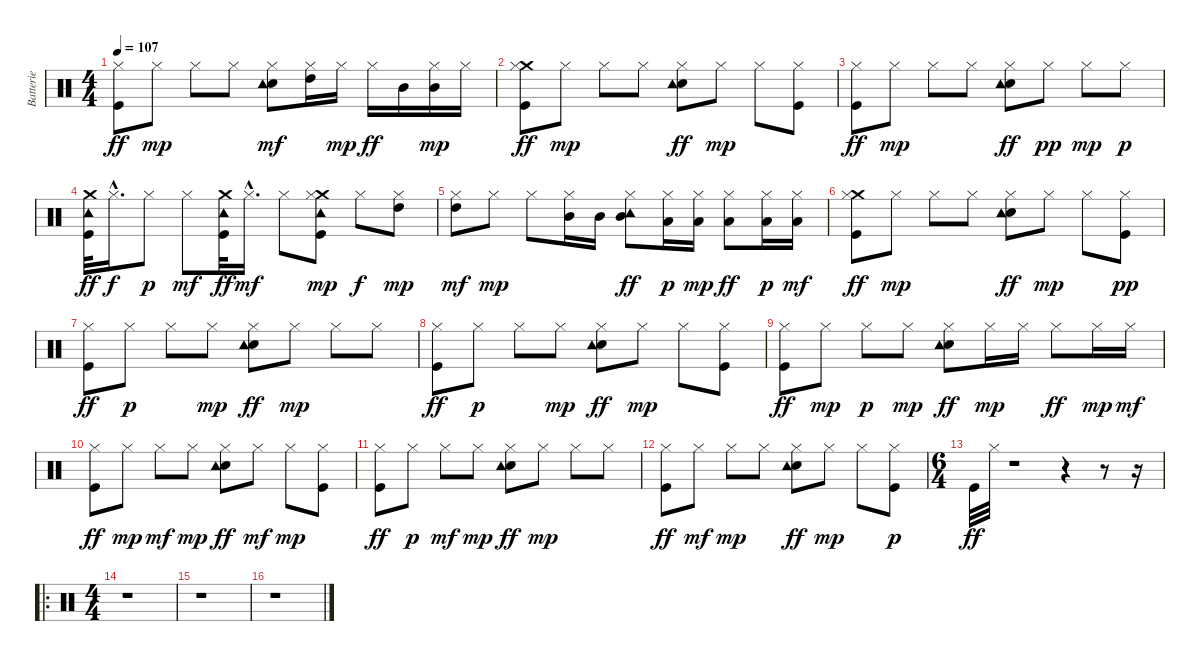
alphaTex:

\track ("Batterie" "Batterie") {instrument percussion}
\staff {score}
\articulation defaults
\ts (4 4)
\tempo 107
\clef neutral
\ks c
("Kick (hit)" "Hi-Hat (closed)").8{dy ff} "Hi-Hat (closed)".8{dy mp} "Hi-Hat (closed)".8 "Hi-Hat (closed)".8 ("Snare (hit) 2" "Tambourine (hit)" "Hi-Hat (closed)").8{dy mf} ("High Tom (hit)" "Hi-Hat (closed)").16 "Hi-Hat (closed)".16{dy mp} "Hi-Hat (closed)".16{dy ff} "Mid Tom (hit)".16 ("Mid Tom (hit)" "Hi-Hat (closed)").16{dy mp} "Hi-Hat (closed)".16 |
("Kick (hit)" "Crash medium (hit)" "Hi-Hat (closed)").8{dy ff} "Hi-Hat (closed)".8{dy mp} "Hi-Hat (closed)".8 "Hi-Hat (closed)".8 ("Snare (hit) 2" "Tambourine (hit)" "Hi-Hat (closed)").8{dy ff} "Hi-Hat (closed)".8{dy mp} "Hi-Hat (closed)".8 ("Kick (hit)" "Hi-Hat (closed)").8 |
("Kick (hit)" "Hi-Hat (closed)").8{dy ff} "Hi-Hat (closed)".8{dy mp} "Hi-Hat (closed)".8 "Hi-Hat (closed)".8 ("Snare (hit) 2" "Tambourine (hit)" "Hi-Hat (closed)").8{dy ff} "Hi-Hat (closed)".8{dy pp} "Hi-Hat (closed)".8{dy mp} "Hi-Hat (closed)".8{dy p} |
("Kick (hit)" "Tambourine (hit)" "Crash medium (hit)").32{dy ff} "Hi-Hat (closed)"{hac}.16{d dy f} "Hi-Hat (closed)".8{dy p} "Hi-Hat (closed)".8{dy mf} ("Kick (hit)" "Tambourine (hit)" "Crash medium (hit)").32{dy ff} "Hi-Hat (closed)"{hac}.16{d dy mf} "Hi-Hat (closed)".8 ("Kick (hit)" "Tambourine (hit)" "Crash medium (hit)" "Hi-Hat (closed)").8{dy mp} "Hi-Hat (closed)".8{dy f} ("High Tom (hit)" "Hi-Hat (closed)").8{dy mp} |
("High Tom (hit)" "Hi-Hat (closed)").8{dy mf} "Hi-Hat (closed)".8{dy mp} "Hi-Hat (closed)".8 ("Mid Tom (hit)" "Hi-Hat (closed)").16 "Mid Tom (hit)".16 ("Mid Tom (hit)" "Tambourine (hit)" "Hi-Hat (closed)").8{dy ff} ("Low Tom (hit)" "Hi-Hat (closed)").16{dy p} ("Low Tom (hit)" "Hi-Hat (closed)").16{dy mp} ("Low Tom (hit)" "Hi-Hat (closed)").8{dy ff} ("Low Tom (hit)" "Hi-Hat (closed)").16{dy p} ("Low Tom (hit)" "Hi-Hat (closed)").16{dy mf} |
("Kick (hit)" "Crash medium (hit)" "Hi-Hat (closed)").8{dy ff} "Hi-Hat (closed)".8{dy mp} "Hi-Hat (closed)".8 "Hi-Hat (closed)".8 ("Snare (hit) 2" "Tambourine (hit)" "Hi-Hat (closed)").8{dy ff} "Hi-Hat (closed)".8{dy mp} "Hi-Hat (closed)".8 ("Kick (hit)" "Hi-Hat (closed)").8{dy pp} |
("Kick (hit)" "Hi-Hat (closed)").8{dy ff} "Hi-Hat (closed)".8{dy p} "Hi-Hat (closed)".8 "Hi-Hat (closed)".8{dy mp} ("Snare (hit) 2" "Tambourine (hit)" "Hi-Hat (closed)").8{dy ff} "Hi-Hat (closed)".8{dy mp} "Hi-Hat (closed)".8 "Hi-Hat (closed)".8 |
("Kick (hit)" "Hi-Hat (closed)").8{dy ff} "Hi-Hat (closed)".8{dy p} "Hi-Hat (closed)".8 "Hi-Hat (closed)".8{dy mp} ("Snare (hit) 2" "Tambourine (hit)" "Hi-Hat (closed)").8{dy ff} "Hi-Hat (closed)".8{dy mp} "Hi-Hat (closed)".8 ("Kick (hit)" "Hi-Hat (closed)").8 |
("Kick (hit)" "Hi-Hat (closed)").8{dy ff} "Hi-Hat (closed)".8{dy mp} "Hi-Hat (closed)".8{dy p} "Hi-Hat (closed)".8{dy mp} ("Snare (hit) 2" "Tambourine (hit)" "Hi-Hat (closed)").8{dy ff} "Hi-Hat (closed)".16{dy mp} "Hi-Hat (closed)".16 "Hi-Hat (closed)".8{dy ff} "Hi-Hat (closed)".16{dy mp} "Hi-Hat (closed)".16{dy mf} |
("Kick (hit)" "Hi-Hat (closed)").8{dy ff} "Hi-Hat (closed)".8{dy mp} "Hi-Hat (closed)".8{dy mf} "Hi-Hat (closed)".8{dy mp} ("Snare (hit) 2" "Tambourine (hit)" "Hi-Hat (closed)").8{dy ff} "Hi-Hat (closed)".8{dy mf} "Hi-Hat (closed)".8{dy mp} ("Kick (hit)" "Hi-Hat (closed)").8 |
("Hi-Hat (closed)" "Kick (hit)").8{dy ff} "Hi-Hat (closed)".8{dy p} "Hi-Hat (closed)".8{dy mf} "Hi-Hat (closed)".8{dy mp} ("Snare (hit) 2" "Tambourine (hit)" "Hi-Hat (closed)").8{dy ff} "Hi-Hat (closed)".8{dy mp} "Hi-Hat (closed)".8 "Hi-Hat (closed)".8 |
("Kick (hit)" "Hi-Hat (closed)").8{dy ff} "Hi-Hat (closed)".8{dy mf} "Hi-Hat (closed)".8{dy mp} "Hi-Hat (closed)".8 ("Snare (hit) 2" "Tambourine (hit)" "Hi-Hat (closed)").8{dy ff} "Hi-Hat (closed)".8{dy mp} "Hi-Hat (closed)".8 ("Kick (hit)" "Hi-Hat (closed)").8{dy p} |
\ts (6 4)
"Kick (hit)".32{dy ff} "Hi-Hat (closed)".32 r.1 r.4 r.8 r.16 |
\ro
\ts (4 4)
r.1 |
r.1 |
r.1
